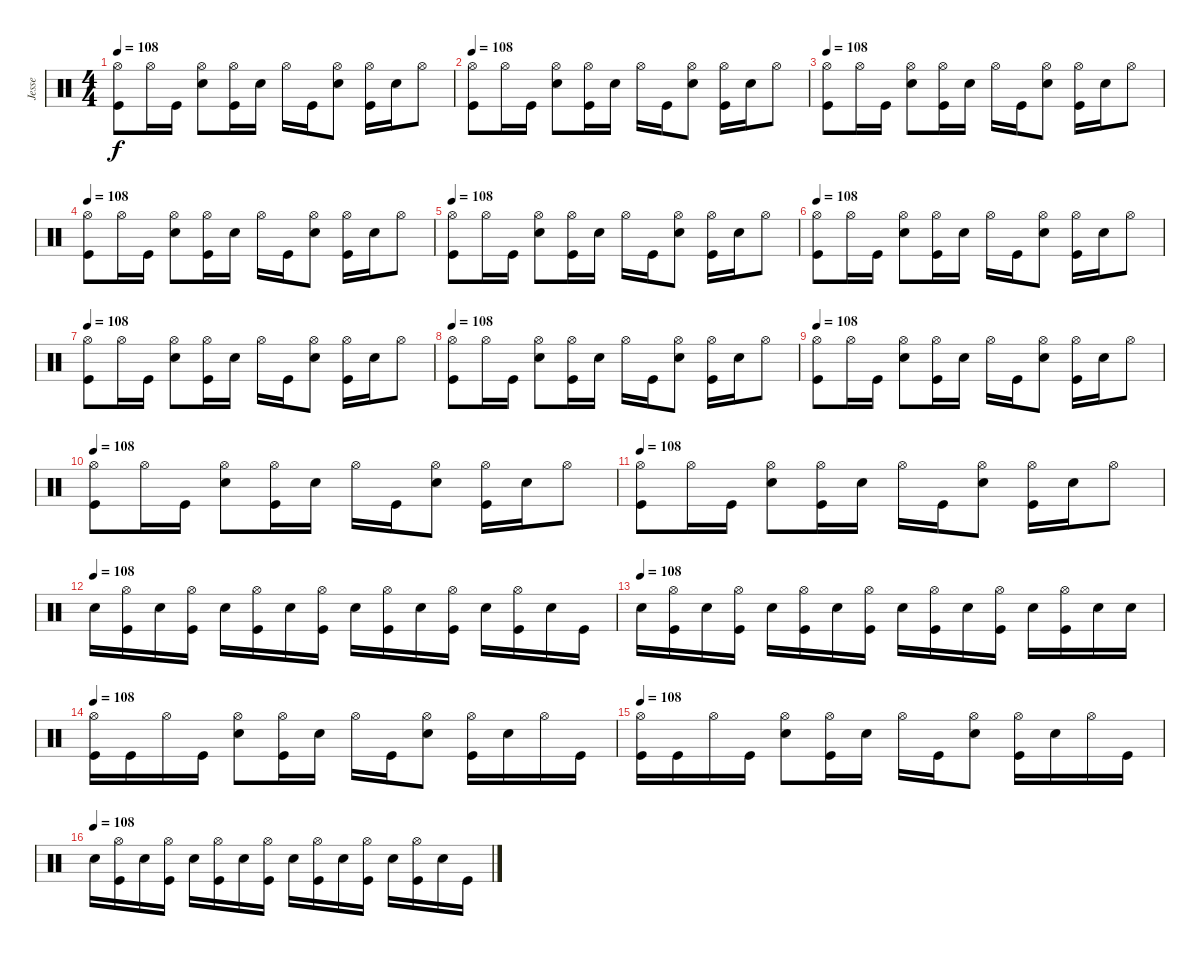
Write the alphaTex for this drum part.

\track ("Jesse" "Jesse") {instrument percussion}
\staff {score}
\articulation defaults
\ts (4 4)
\tempo 108
\clef neutral
\ks c
("Hi-Hat (open)" "Kick (hit)").8{dy f} "Hi-Hat (open)".16 "Kick (hit)".16 ("Hi-Hat (open)" "Snare (hit) 2").8 ("Hi-Hat (open)" "Kick (hit)").16 "Snare (hit) 2".16 "Hi-Hat (open)".16 "Kick (hit)".16 ("Hi-Hat (open)" "Snare (hit) 2").8 ("Hi-Hat (open)" "Kick (hit)").16 "Snare (hit) 2".16 "Hi-Hat (open)".8 |
\tempo 108
("Hi-Hat (open)" "Kick (hit)").8 "Hi-Hat (open)".16 "Kick (hit)".16 ("Hi-Hat (open)" "Snare (hit) 2").8 ("Hi-Hat (open)" "Kick (hit)").16 "Snare (hit) 2".16 "Hi-Hat (open)".16 "Kick (hit)".16 ("Hi-Hat (open)" "Snare (hit) 2").8 ("Hi-Hat (open)" "Kick (hit)").16 "Snare (hit) 2".16 "Hi-Hat (open)".8 |
\tempo 108
("Hi-Hat (open)" "Kick (hit)").8 "Hi-Hat (open)".16 "Kick (hit)".16 ("Hi-Hat (open)" "Snare (hit) 2").8 ("Hi-Hat (open)" "Kick (hit)").16 "Snare (hit) 2".16 "Hi-Hat (open)".16 "Kick (hit)".16 ("Hi-Hat (open)" "Snare (hit) 2").8 ("Hi-Hat (open)" "Kick (hit)").16 "Snare (hit) 2".16 "Hi-Hat (open)".8 |
\tempo 108
("Hi-Hat (open)" "Kick (hit)").8 "Hi-Hat (open)".16 "Kick (hit)".16 ("Hi-Hat (open)" "Snare (hit) 2").8 ("Hi-Hat (open)" "Kick (hit)").16 "Snare (hit) 2".16 "Hi-Hat (open)".16 "Kick (hit)".16 ("Hi-Hat (open)" "Snare (hit) 2").8 ("Hi-Hat (open)" "Kick (hit)").16 "Snare (hit) 2".16 "Hi-Hat (open)".8 |
\tempo 108
("Hi-Hat (open)" "Kick (hit)").8 "Hi-Hat (open)".16 "Kick (hit)".16 ("Hi-Hat (open)" "Snare (hit) 2").8 ("Hi-Hat (open)" "Kick (hit)").16 "Snare (hit) 2".16 "Hi-Hat (open)".16 "Kick (hit)".16 ("Hi-Hat (open)" "Snare (hit) 2").8 ("Hi-Hat (open)" "Kick (hit)").16 "Snare (hit) 2".16 "Hi-Hat (open)".8 |
\tempo 108
("Hi-Hat (open)" "Kick (hit)").8 "Hi-Hat (open)".16 "Kick (hit)".16 ("Hi-Hat (open)" "Snare (hit) 2").8 ("Hi-Hat (open)" "Kick (hit)").16 "Snare (hit) 2".16 "Hi-Hat (open)".16 "Kick (hit)".16 ("Hi-Hat (open)" "Snare (hit) 2").8 ("Hi-Hat (open)" "Kick (hit)").16 "Snare (hit) 2".16 "Hi-Hat (open)".8 |
\tempo 108
("Hi-Hat (open)" "Kick (hit)").8 "Hi-Hat (open)".16 "Kick (hit)".16 ("Hi-Hat (open)" "Snare (hit) 2").8 ("Hi-Hat (open)" "Kick (hit)").16 "Snare (hit) 2".16 "Hi-Hat (open)".16 "Kick (hit)".16 ("Hi-Hat (open)" "Snare (hit) 2").8 ("Hi-Hat (open)" "Kick (hit)").16 "Snare (hit) 2".16 "Hi-Hat (open)".8 |
\tempo 108
("Hi-Hat (open)" "Kick (hit)").8 "Hi-Hat (open)".16 "Kick (hit)".16 ("Hi-Hat (open)" "Snare (hit) 2").8 ("Hi-Hat (open)" "Kick (hit)").16 "Snare (hit) 2".16 "Hi-Hat (open)".16 "Kick (hit)".16 ("Hi-Hat (open)" "Snare (hit) 2").8 ("Hi-Hat (open)" "Kick (hit)").16 "Snare (hit) 2".16 "Hi-Hat (open)".8 |
\tempo 108
("Hi-Hat (open)" "Kick (hit)").8 "Hi-Hat (open)".16 "Kick (hit)".16 ("Hi-Hat (open)" "Snare (hit) 2").8 ("Hi-Hat (open)" "Kick (hit)").16 "Snare (hit) 2".16 "Hi-Hat (open)".16 "Kick (hit)".16 ("Hi-Hat (open)" "Snare (hit) 2").8 ("Hi-Hat (open)" "Kick (hit)").16 "Snare (hit) 2".16 "Hi-Hat (open)".8 |
\tempo 108
("Hi-Hat (open)" "Kick (hit)").8 "Hi-Hat (open)".16 "Kick (hit)".16 ("Hi-Hat (open)" "Snare (hit) 2").8 ("Hi-Hat (open)" "Kick (hit)").16 "Snare (hit) 2".16 "Hi-Hat (open)".16 "Kick (hit)".16 ("Hi-Hat (open)" "Snare (hit) 2").8 ("Hi-Hat (open)" "Kick (hit)").16 "Snare (hit) 2".16 "Hi-Hat (open)".8 |
\tempo 108
("Hi-Hat (open)" "Kick (hit)").8 "Hi-Hat (open)".16 "Kick (hit)".16 ("Hi-Hat (open)" "Snare (hit) 2").8 ("Hi-Hat (open)" "Kick (hit)").16 "Snare (hit) 2".16 "Hi-Hat (open)".16 "Kick (hit)".16 ("Hi-Hat (open)" "Snare (hit) 2").8 ("Hi-Hat (open)" "Kick (hit)").16 "Snare (hit) 2".16 "Hi-Hat (open)".8 |
\tempo (108)
"Snare (hit) 2".16 ("Hi-Hat (open)" "Kick (hit)").16 "Snare (hit) 2".16 ("Hi-Hat (open)" "Kick (hit)").16 "Snare (hit) 2".16 ("Hi-Hat (open)" "Kick (hit)").16 "Snare (hit) 2".16 ("Hi-Hat (open)" "Kick (hit)").16 "Snare (hit) 2".16 ("Hi-Hat (open)" "Kick (hit)").16 "Snare (hit) 2".16 ("Hi-Hat (open)" "Kick (hit)").16 "Snare (hit) 2".16 ("Hi-Hat (open)" "Kick (hit)").16 "Snare (hit) 2".16 "Kick (hit)".16 |
\tempo (108)
"Snare (hit) 2".16 ("Hi-Hat (open)" "Kick (hit)").16 "Snare (hit) 2".16 ("Hi-Hat (open)" "Kick (hit)").16 "Snare (hit) 2".16 ("Hi-Hat (open)" "Kick (hit)").16 "Snare (hit) 2".16 ("Hi-Hat (open)" "Kick (hit)").16 "Snare (hit) 2".16 ("Hi-Hat (open)" "Kick (hit)").16 "Snare (hit) 2".16 ("Hi-Hat (open)" "Kick (hit)").16 "Snare (hit) 2".16 ("Hi-Hat (open)" "Kick (hit)").16 "Snare (hit) 2".16 "Snare (hit) 2".16 |
\tempo 108
("Hi-Hat (open)" "Kick (hit)").16 "Kick (hit)".16 "Hi-Hat (open)".16 "Kick (hit)".16 ("Hi-Hat (open)" "Snare (hit) 2").8 ("Hi-Hat (open)" "Kick (hit)").16 "Snare (hit) 2".16 "Hi-Hat (open)".16 "Kick (hit)".16 ("Hi-Hat (open)" "Snare (hit) 2").8 ("Hi-Hat (open)" "Kick (hit)").16 "Snare (hit) 2".16 "Hi-Hat (open)".16 "Kick (hit)".16 |
\tempo 108
("Hi-Hat (open)" "Kick (hit)").16 "Kick (hit)".16 "Hi-Hat (open)".16 "Kick (hit)".16 ("Hi-Hat (open)" "Snare (hit) 2").8 ("Hi-Hat (open)" "Kick (hit)").16 "Snare (hit) 2".16 "Hi-Hat (open)".16 "Kick (hit)".16 ("Hi-Hat (open)" "Snare (hit) 2").8 ("Hi-Hat (open)" "Kick (hit)").16 "Snare (hit) 2".16 "Hi-Hat (open)".16 "Kick (hit)".16 |
\tempo (108)
"Snare (hit) 2".16 ("Hi-Hat (open)" "Kick (hit)").16 "Snare (hit) 2".16 ("Hi-Hat (open)" "Kick (hit)").16 "Snare (hit) 2".16 ("Hi-Hat (open)" "Kick (hit)").16 "Snare (hit) 2".16 ("Hi-Hat (open)" "Kick (hit)").16 "Snare (hit) 2".16 ("Hi-Hat (open)" "Kick (hit)").16 "Snare (hit) 2".16 ("Hi-Hat (open)" "Kick (hit)").16 "Snare (hit) 2".16 ("Hi-Hat (open)" "Kick (hit)").16 "Snare (hit) 2".16 "Kick (hit)".16
